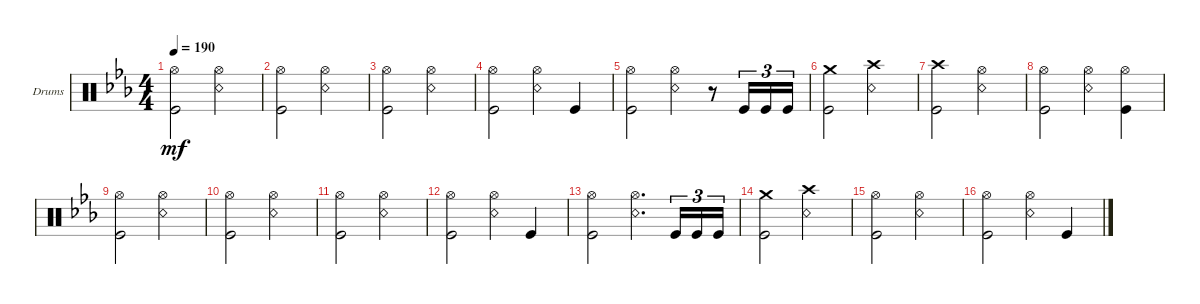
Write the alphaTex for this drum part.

\defaultSystemsLayout 4
\bracketExtendMode groupsimilarinstruments
\firstSystemTrackNameOrientation horizontal
\otherSystemsTrackNameOrientation horizontal
\track ("Drumkit" "Drums") {instrument percussion}
\staff {score}
\articulation defaults
\ts (4 4)
\tempo 190
\clef neutral
\ks cminor
("Kick (hit)" "Hi-Hat (open)").2{dy mf} ("Snare (rim shot)" "Hi-Hat (open)").2 |
("Kick (hit)" "Hi-Hat (open)").2 ("Snare (rim shot)" "Hi-Hat (open)").2 |
("Kick (hit)" "Hi-Hat (open)").2 ("Snare (rim shot)" "Hi-Hat (open)").2 |
("Kick (hit)" "Hi-Hat (open)").2 ("Snare (rim shot)" "Hi-Hat (open)").4 "Kick (hit)".4 |
("Kick (hit)" "Hi-Hat (open)").2 ("Snare (rim shot)" "Hi-Hat (open)").4 r.8 "Kick (hit)".16{tu (3 2)} "Kick (hit)".16{tu (3 2)} "Kick (hit)".16{tu (3 2)} |
("Kick (hit)" "Crash medium (hit)").2 ("Crash high (hit)" "Snare (rim shot)").2 |
("Kick (hit)" "Crash high (hit)").2 ("Snare (rim shot)" "Hi-Hat (open)").2 |
("Kick (hit)" "Hi-Hat (open)").2 ("Snare (rim shot)" "Hi-Hat (open)").4 ("Kick (hit)" "Hi-Hat (open)").4 |
("Kick (hit)" "Hi-Hat (open)").2 ("Snare (rim shot)" "Hi-Hat (open)").2 |
("Kick (hit)" "Hi-Hat (open)").2 ("Snare (rim shot)" "Hi-Hat (open)").2 |
("Kick (hit)" "Hi-Hat (open)").2 ("Snare (rim shot)" "Hi-Hat (open)").2 |
("Kick (hit)" "Hi-Hat (open)").2 ("Snare (rim shot)" "Hi-Hat (open)").4 "Kick (hit)".4 |
("Kick (hit)" "Hi-Hat (open)").2 ("Snare (rim shot)" "Hi-Hat (open)").4{d} "Kick (hit)".16{tu (3 2)} "Kick (hit)".16{tu (3 2)} "Kick (hit)".16{tu (3 2)} |
("Kick (hit)" "Crash medium (hit)").2 ("Crash high (hit)" "Snare (rim shot)").2 |
("Kick (hit)" "Hi-Hat (open)").2 ("Snare (rim shot)" "Hi-Hat (open)").2 |
("Kick (hit)" "Hi-Hat (open)").2 ("Snare (rim shot)" "Hi-Hat (open)").4 "Kick (hit)".4
